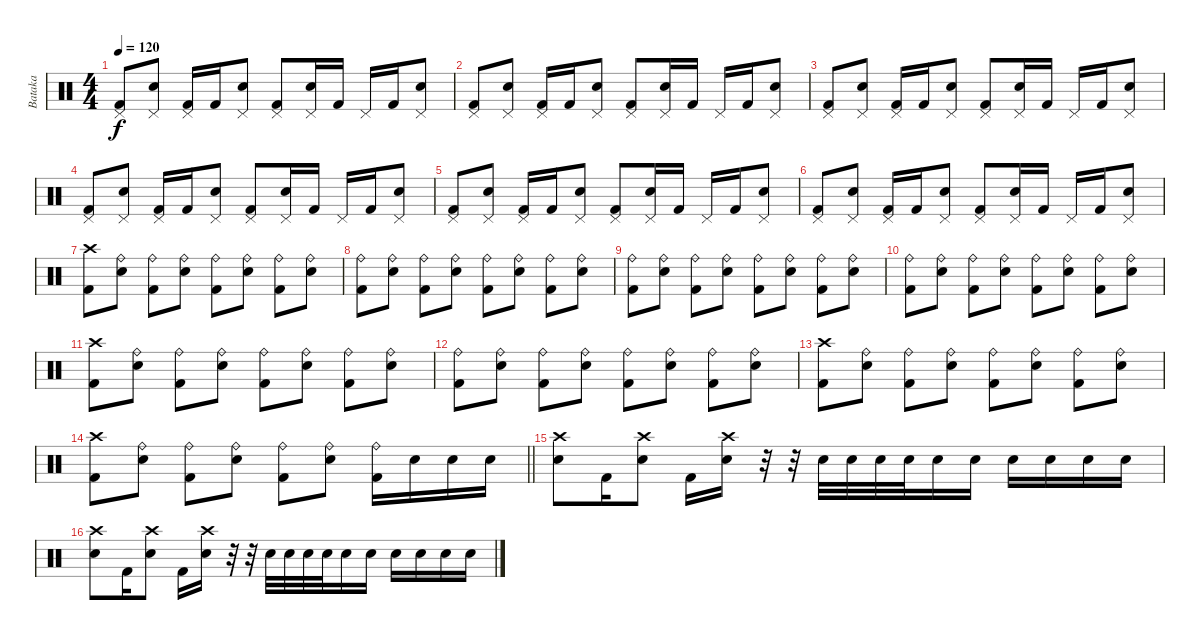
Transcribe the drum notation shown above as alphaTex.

\track ("Bataka" "Bataka") {instrument percussion}
\staff {score}
\articulation defaults
\ts (4 4)
\tempo 120
\clef neutral
\ks c
("Pedal Hi-Hat (hit)" "Kick (hit) 2").8{dy f} ("Pedal Hi-Hat (hit)" "Snare (hit) 2").8 ("Pedal Hi-Hat (hit)" "Kick (hit) 2").16 "Kick (hit) 2".16 ("Pedal Hi-Hat (hit)" "Snare (hit) 2").8 ("Pedal Hi-Hat (hit)" "Kick (hit) 2").8 ("Pedal Hi-Hat (hit)" "Snare (hit) 2").16 "Kick (hit) 2".16 "Pedal Hi-Hat (hit)".16 "Kick (hit) 2".16 ("Pedal Hi-Hat (hit)" "Snare (hit) 2").8 |
("Pedal Hi-Hat (hit)" "Kick (hit) 2").8 ("Pedal Hi-Hat (hit)" "Snare (hit) 2").8 ("Pedal Hi-Hat (hit)" "Kick (hit) 2").16 "Kick (hit) 2".16 ("Pedal Hi-Hat (hit)" "Snare (hit) 2").8 ("Pedal Hi-Hat (hit)" "Kick (hit) 2").8 ("Pedal Hi-Hat (hit)" "Snare (hit) 2").16 "Kick (hit) 2".16 "Pedal Hi-Hat (hit)".16 "Kick (hit) 2".16 ("Pedal Hi-Hat (hit)" "Snare (hit) 2").8 |
("Pedal Hi-Hat (hit)" "Kick (hit) 2").8 ("Pedal Hi-Hat (hit)" "Snare (hit) 2").8 ("Pedal Hi-Hat (hit)" "Kick (hit) 2").16 "Kick (hit) 2".16 ("Pedal Hi-Hat (hit)" "Snare (hit) 2").8 ("Pedal Hi-Hat (hit)" "Kick (hit) 2").8 ("Pedal Hi-Hat (hit)" "Snare (hit) 2").16 "Kick (hit) 2".16 "Pedal Hi-Hat (hit)".16 "Kick (hit) 2".16 ("Pedal Hi-Hat (hit)" "Snare (hit) 2").8 |
("Pedal Hi-Hat (hit)" "Kick (hit) 2").8 ("Pedal Hi-Hat (hit)" "Snare (hit) 2").8 ("Pedal Hi-Hat (hit)" "Kick (hit) 2").16 "Kick (hit) 2".16 ("Pedal Hi-Hat (hit)" "Snare (hit) 2").8 ("Pedal Hi-Hat (hit)" "Kick (hit) 2").8 ("Pedal Hi-Hat (hit)" "Snare (hit) 2").16 "Kick (hit) 2".16 "Pedal Hi-Hat (hit)".16 "Kick (hit) 2".16 ("Pedal Hi-Hat (hit)" "Snare (hit) 2").8 |
("Pedal Hi-Hat (hit)" "Kick (hit) 2").8 ("Pedal Hi-Hat (hit)" "Snare (hit) 2").8 ("Pedal Hi-Hat (hit)" "Kick (hit) 2").16 "Kick (hit) 2".16 ("Pedal Hi-Hat (hit)" "Snare (hit) 2").8 ("Pedal Hi-Hat (hit)" "Kick (hit) 2").8 ("Pedal Hi-Hat (hit)" "Snare (hit) 2").16 "Kick (hit) 2".16 "Pedal Hi-Hat (hit)".16 "Kick (hit) 2".16 ("Pedal Hi-Hat (hit)" "Snare (hit) 2").8 |
("Pedal Hi-Hat (hit)" "Kick (hit) 2").8 ("Pedal Hi-Hat (hit)" "Snare (hit) 2").8 ("Pedal Hi-Hat (hit)" "Kick (hit) 2").16 "Kick (hit) 2".16 ("Pedal Hi-Hat (hit)" "Snare (hit) 2").8 ("Pedal Hi-Hat (hit)" "Kick (hit) 2").8 ("Pedal Hi-Hat (hit)" "Snare (hit) 2").16 "Kick (hit) 2".16 "Pedal Hi-Hat (hit)".16 "Kick (hit) 2".16 ("Pedal Hi-Hat (hit)" "Snare (hit) 2").8 |
("Crash high (hit)" "Kick (hit) 2").8 ("Ride (bell)" "Snare (hit) 2").8 ("Ride (bell)" "Kick (hit) 2").8 ("Ride (bell)" "Snare (hit) 2").8 ("Ride (bell)" "Kick (hit) 2").8 ("Ride (bell)" "Snare (hit) 2").8 ("Ride (bell)" "Kick (hit) 2").8 ("Ride (bell)" "Snare (hit) 2").8 |
("Ride (bell)" "Kick (hit) 2").8 ("Ride (bell)" "Snare (hit) 2").8 ("Ride (bell)" "Kick (hit) 2").8 ("Ride (bell)" "Snare (hit) 2").8 ("Ride (bell)" "Kick (hit) 2").8 ("Ride (bell)" "Snare (hit) 2").8 ("Ride (bell)" "Kick (hit) 2").8 ("Ride (bell)" "Snare (hit) 2").8 |
("Ride (bell)" "Kick (hit) 2").8 ("Ride (bell)" "Snare (hit) 2").8 ("Ride (bell)" "Kick (hit) 2").8 ("Ride (bell)" "Snare (hit) 2").8 ("Ride (bell)" "Kick (hit) 2").8 ("Ride (bell)" "Snare (hit) 2").8 ("Ride (bell)" "Kick (hit) 2").8 ("Ride (bell)" "Snare (hit) 2").8 |
("Ride (bell)" "Kick (hit) 2").8 ("Ride (bell)" "Snare (hit) 2").8 ("Ride (bell)" "Kick (hit) 2").8 ("Ride (bell)" "Snare (hit) 2").8 ("Ride (bell)" "Kick (hit) 2").8 ("Ride (bell)" "Snare (hit) 2").8 ("Ride (bell)" "Kick (hit) 2").8 ("Ride (bell)" "Snare (hit) 2").8 |
("Crash high (hit)" "Kick (hit) 2").8 ("Ride (bell)" "Snare (hit) 2").8 ("Ride (bell)" "Kick (hit) 2").8 ("Ride (bell)" "Snare (hit) 2").8 ("Ride (bell)" "Kick (hit) 2").8 ("Ride (bell)" "Snare (hit) 2").8 ("Ride (bell)" "Kick (hit) 2").8 ("Ride (bell)" "Snare (hit) 2").8 |
("Ride (bell)" "Kick (hit) 2").8 ("Ride (bell)" "Snare (hit) 2").8 ("Ride (bell)" "Kick (hit) 2").8 ("Ride (bell)" "Snare (hit) 2").8 ("Ride (bell)" "Kick (hit) 2").8 ("Ride (bell)" "Snare (hit) 2").8 ("Ride (bell)" "Kick (hit) 2").8 ("Ride (bell)" "Snare (hit) 2").8 |
("Crash high (hit)" "Kick (hit) 2").8 ("Ride (bell)" "Snare (hit) 2").8 ("Ride (bell)" "Kick (hit) 2").8 ("Ride (bell)" "Snare (hit) 2").8 ("Ride (bell)" "Kick (hit) 2").8 ("Ride (bell)" "Snare (hit) 2").8 ("Ride (bell)" "Kick (hit) 2").8 ("Ride (bell)" "Snare (hit) 2").8 |
\barLineRight lightlight
("Crash high (hit)" "Kick (hit) 2").8 ("Ride (bell)" "Snare (hit) 2").8 ("Ride (bell)" "Kick (hit) 2").8 ("Ride (bell)" "Snare (hit) 2").8 ("Ride (bell)" "Kick (hit) 2").8 ("Ride (bell)" "Snare (hit) 2").8 ("Ride (bell)" "Kick (hit) 2").16 "Snare (hit) 2".16 "Snare (hit) 2".16 "Snare (hit) 2".16 |
("Snare (hit) 2" "Crash high (hit)").8 "Kick (hit) 2".16 ("Snare (hit) 2" "Crash high (hit)").8 "Kick (hit) 2".16 ("Snare (hit) 2" "Crash high (hit)").16 r.32 r.32 "Snare (hit) 2".32 "Snare (hit) 2".32 "Snare (hit) 2".32 "Snare (hit) 2".32 "Snare (hit) 2".16 "Snare (hit) 2".16 "Snare (hit) 2".16 "Snare (hit) 2".16 "Snare (hit) 2".16 "Snare (hit) 2".16 |
("Snare (hit) 2" "Crash high (hit)").8 "Kick (hit) 2".16 ("Snare (hit) 2" "Crash high (hit)").8 "Kick (hit) 2".16 ("Snare (hit) 2" "Crash high (hit)").16 r.32 r.32 "Snare (hit) 2".32 "Snare (hit) 2".32 "Snare (hit) 2".32 "Snare (hit) 2".32 "Snare (hit) 2".16 "Snare (hit) 2".16 "Snare (hit) 2".16 "Snare (hit) 2".16 "Snare (hit) 2".16 "Snare (hit) 2".16
